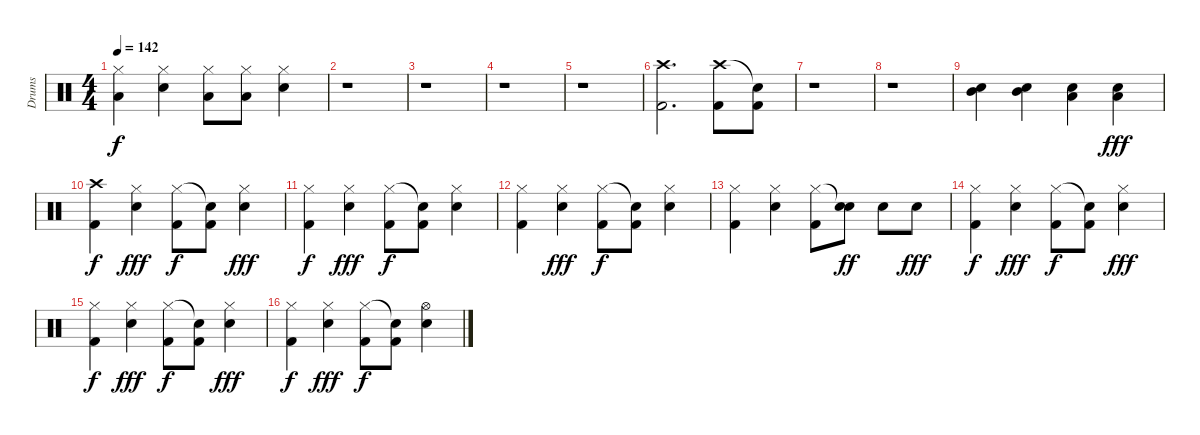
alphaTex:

\track ("Drums" "Drums") {instrument percussion}
\staff {score}
\articulation defaults
\ts (4 4)
\tempo 142
\clef neutral
\ks aminor
("Hi-Hat (closed)" "Low Floor Tom (hit)").4{dy f} ("Hi-Hat (closed)" "Snare (hit) 2").4 ("Hi-Hat (closed)" "Low Floor Tom (hit)").8 ("Hi-Hat (closed)" "Low Floor Tom (hit)").8 ("Hi-Hat (closed)" "Snare (hit) 2").4 |
r.1 |
r.1 |
r.1 |
r.1 |
("Crash high (hit)" "Kick (hit) 2").2{d} ("Crash high (hit)" "Kick (hit) 2").8 ("Snare (hit)"{t} "Kick (hit) 2").8 |
r.1 |
r.1 |
("Mid Tom (hit)" "Snare (hit) 2").4 ("Mid Tom (hit)" "Snare (hit) 2").4 ("Low Floor Tom (hit)" "Snare (hit) 2").4 ("Low Floor Tom (hit)" "Snare (hit) 2").4{dy fff} |
("Crash high (hit)" "Kick (hit) 2").4{dy f} ("Hi-Hat (closed)" "Snare (hit) 2").4{dy fff} ("Hi-Hat (closed)" "Kick (hit) 2").8{dy f} ("Snare (hit)"{t} "Kick (hit) 2").8 ("Hi-Hat (closed)" "Snare (hit) 2").4{dy fff} |
("Hi-Hat (closed)" "Kick (hit) 2").4{dy f} ("Hi-Hat (closed)" "Snare (hit) 2").4{dy fff} ("Hi-Hat (closed)" "Kick (hit) 2").8{dy f} ("Snare (hit)"{t} "Kick (hit) 2").8 ("Hi-Hat (closed)" "Snare (hit) 2").4 |
("Hi-Hat (closed)" "Kick (hit) 2").4 ("Hi-Hat (closed)" "Snare (hit) 2").4{dy fff} ("Hi-Hat (closed)" "Kick (hit) 2").8{dy f} ("Snare (hit)"{t} "Kick (hit) 2").8 ("Hi-Hat (closed)" "Snare (hit) 2").4 |
("Hi-Hat (closed)" "Kick (hit) 2").4 ("Hi-Hat (closed)" "Snare (hit) 2").4 ("Hi-Hat (closed)" "Kick (hit) 2").8 ("Snare (hit)"{t} "Snare (hit) 2").8{dy ff} "Snare (hit) 2".8 "Snare (hit) 2".8{dy fff} |
("Hi-Hat (closed)" "Kick (hit) 2").4{dy f} ("Hi-Hat (closed)" "Snare (hit) 2").4{dy fff} ("Hi-Hat (closed)" "Kick (hit) 2").8{dy f} ("Snare (hit)"{t} "Kick (hit) 2").8 ("Hi-Hat (closed)" "Snare (hit) 2").4{dy fff} |
("Hi-Hat (closed)" "Kick (hit) 2").4{dy f} ("Hi-Hat (closed)" "Snare (hit) 2").4{dy fff} ("Hi-Hat (closed)" "Kick (hit) 2").8{dy f} ("Snare (hit)"{t} "Kick (hit) 2").8 ("Hi-Hat (closed)" "Snare (hit) 2").4{dy fff} |
("Hi-Hat (closed)" "Kick (hit) 2").4{dy f} ("Hi-Hat (closed)" "Snare (hit) 2").4{dy fff} ("Hi-Hat (closed)" "Kick (hit) 2").8{dy f} ("Snare (hit)"{t} "Kick (hit) 2").8 ("Hi-Hat (open)" "Snare (hit) 2").4
